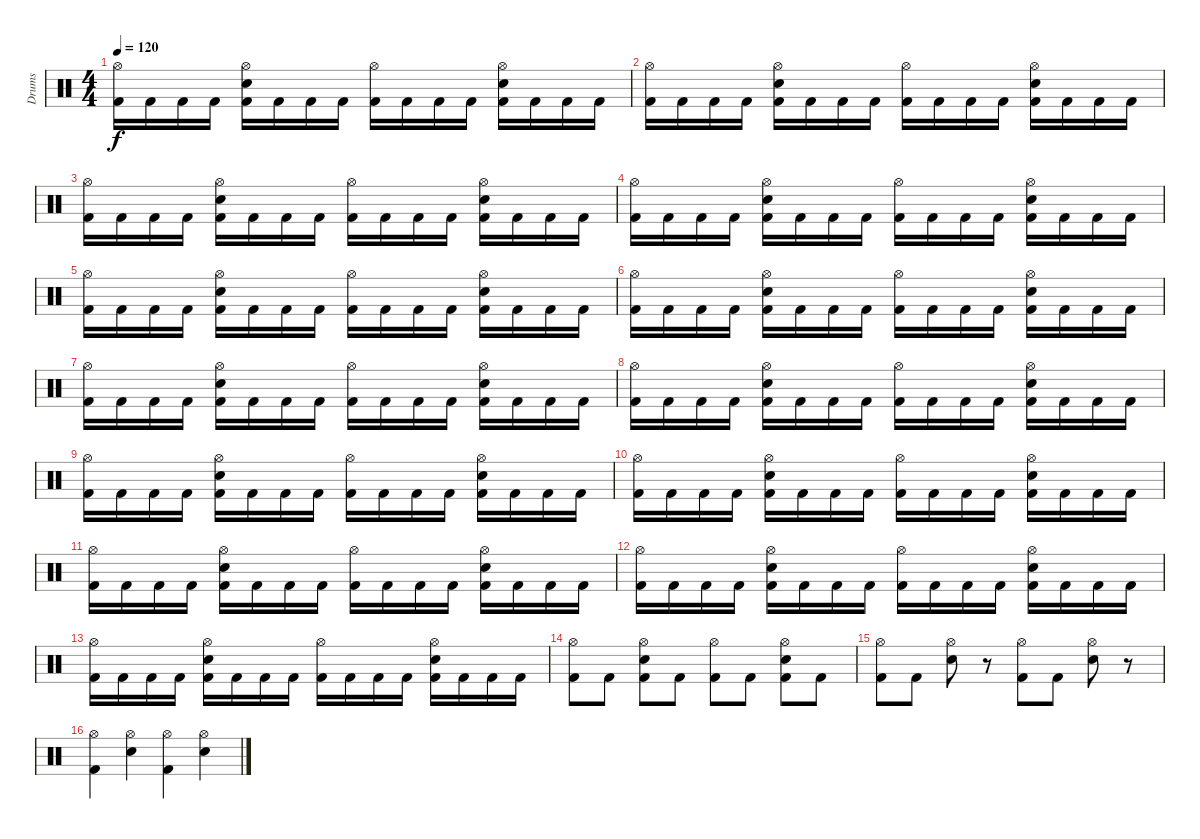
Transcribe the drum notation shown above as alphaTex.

\track ("Drums" "Drums") {instrument percussion}
\staff {score}
\articulation defaults
\ts (4 4)
\tempo 120
\clef neutral
\ks c
("Hi-Hat (open)" "Kick (hit) 2").16{dy f} "Kick (hit) 2".16 "Kick (hit) 2".16 "Kick (hit) 2".16 ("Hi-Hat (open)" "Snare (hit) 2" "Kick (hit) 2").16 "Kick (hit) 2".16 "Kick (hit) 2".16 "Kick (hit) 2".16 ("Hi-Hat (open)" "Kick (hit) 2").16 "Kick (hit) 2".16 "Kick (hit) 2".16 "Kick (hit) 2".16 ("Hi-Hat (open)" "Snare (hit) 2" "Kick (hit) 2").16 "Kick (hit) 2".16 "Kick (hit) 2".16 "Kick (hit) 2".16 |
("Hi-Hat (open)" "Kick (hit) 2").16 "Kick (hit) 2".16 "Kick (hit) 2".16 "Kick (hit) 2".16 ("Hi-Hat (open)" "Snare (hit) 2" "Kick (hit) 2").16 "Kick (hit) 2".16 "Kick (hit) 2".16 "Kick (hit) 2".16 ("Hi-Hat (open)" "Kick (hit) 2").16 "Kick (hit) 2".16 "Kick (hit) 2".16 "Kick (hit) 2".16 ("Hi-Hat (open)" "Snare (hit) 2" "Kick (hit) 2").16 "Kick (hit) 2".16 "Kick (hit) 2".16 "Kick (hit) 2".16 |
("Hi-Hat (open)" "Kick (hit) 2").16 "Kick (hit) 2".16 "Kick (hit) 2".16 "Kick (hit) 2".16 ("Hi-Hat (open)" "Snare (hit) 2" "Kick (hit) 2").16 "Kick (hit) 2".16 "Kick (hit) 2".16 "Kick (hit) 2".16 ("Hi-Hat (open)" "Kick (hit) 2").16 "Kick (hit) 2".16 "Kick (hit) 2".16 "Kick (hit) 2".16 ("Hi-Hat (open)" "Snare (hit) 2" "Kick (hit) 2").16 "Kick (hit) 2".16 "Kick (hit) 2".16 "Kick (hit) 2".16 |
("Hi-Hat (open)" "Kick (hit) 2").16 "Kick (hit) 2".16 "Kick (hit) 2".16 "Kick (hit) 2".16 ("Hi-Hat (open)" "Snare (hit) 2" "Kick (hit) 2").16 "Kick (hit) 2".16 "Kick (hit) 2".16 "Kick (hit) 2".16 ("Hi-Hat (open)" "Kick (hit) 2").16 "Kick (hit) 2".16 "Kick (hit) 2".16 "Kick (hit) 2".16 ("Hi-Hat (open)" "Snare (hit) 2" "Kick (hit) 2").16 "Kick (hit) 2".16 "Kick (hit) 2".16 "Kick (hit) 2".16 |
("Hi-Hat (open)" "Kick (hit) 2").16 "Kick (hit) 2".16 "Kick (hit) 2".16 "Kick (hit) 2".16 ("Hi-Hat (open)" "Snare (hit) 2" "Kick (hit) 2").16 "Kick (hit) 2".16 "Kick (hit) 2".16 "Kick (hit) 2".16 ("Hi-Hat (open)" "Kick (hit) 2").16 "Kick (hit) 2".16 "Kick (hit) 2".16 "Kick (hit) 2".16 ("Hi-Hat (open)" "Snare (hit) 2" "Kick (hit) 2").16 "Kick (hit) 2".16 "Kick (hit) 2".16 "Kick (hit) 2".16 |
("Hi-Hat (open)" "Kick (hit) 2").16 "Kick (hit) 2".16 "Kick (hit) 2".16 "Kick (hit) 2".16 ("Hi-Hat (open)" "Snare (hit) 2" "Kick (hit) 2").16 "Kick (hit) 2".16 "Kick (hit) 2".16 "Kick (hit) 2".16 ("Hi-Hat (open)" "Kick (hit) 2").16 "Kick (hit) 2".16 "Kick (hit) 2".16 "Kick (hit) 2".16 ("Hi-Hat (open)" "Snare (hit) 2" "Kick (hit) 2").16 "Kick (hit) 2".16 "Kick (hit) 2".16 "Kick (hit) 2".16 |
("Hi-Hat (open)" "Kick (hit) 2").16 "Kick (hit) 2".16 "Kick (hit) 2".16 "Kick (hit) 2".16 ("Hi-Hat (open)" "Snare (hit) 2" "Kick (hit) 2").16 "Kick (hit) 2".16 "Kick (hit) 2".16 "Kick (hit) 2".16 ("Hi-Hat (open)" "Kick (hit) 2").16 "Kick (hit) 2".16 "Kick (hit) 2".16 "Kick (hit) 2".16 ("Hi-Hat (open)" "Snare (hit) 2" "Kick (hit) 2").16 "Kick (hit) 2".16 "Kick (hit) 2".16 "Kick (hit) 2".16 |
("Hi-Hat (open)" "Kick (hit) 2").16 "Kick (hit) 2".16 "Kick (hit) 2".16 "Kick (hit) 2".16 ("Hi-Hat (open)" "Snare (hit) 2" "Kick (hit) 2").16 "Kick (hit) 2".16 "Kick (hit) 2".16 "Kick (hit) 2".16 ("Hi-Hat (open)" "Kick (hit) 2").16 "Kick (hit) 2".16 "Kick (hit) 2".16 "Kick (hit) 2".16 ("Hi-Hat (open)" "Snare (hit) 2" "Kick (hit) 2").16 "Kick (hit) 2".16 "Kick (hit) 2".16 "Kick (hit) 2".16 |
("Hi-Hat (open)" "Kick (hit) 2").16 "Kick (hit) 2".16 "Kick (hit) 2".16 "Kick (hit) 2".16 ("Hi-Hat (open)" "Snare (hit) 2" "Kick (hit) 2").16 "Kick (hit) 2".16 "Kick (hit) 2".16 "Kick (hit) 2".16 ("Hi-Hat (open)" "Kick (hit) 2").16 "Kick (hit) 2".16 "Kick (hit) 2".16 "Kick (hit) 2".16 ("Hi-Hat (open)" "Snare (hit) 2" "Kick (hit) 2").16 "Kick (hit) 2".16 "Kick (hit) 2".16 "Kick (hit) 2".16 |
("Hi-Hat (open)" "Kick (hit) 2").16 "Kick (hit) 2".16 "Kick (hit) 2".16 "Kick (hit) 2".16 ("Hi-Hat (open)" "Snare (hit) 2" "Kick (hit) 2").16 "Kick (hit) 2".16 "Kick (hit) 2".16 "Kick (hit) 2".16 ("Hi-Hat (open)" "Kick (hit) 2").16 "Kick (hit) 2".16 "Kick (hit) 2".16 "Kick (hit) 2".16 ("Hi-Hat (open)" "Snare (hit) 2" "Kick (hit) 2").16 "Kick (hit) 2".16 "Kick (hit) 2".16 "Kick (hit) 2".16 |
("Hi-Hat (open)" "Kick (hit) 2").16 "Kick (hit) 2".16 "Kick (hit) 2".16 "Kick (hit) 2".16 ("Hi-Hat (open)" "Snare (hit) 2" "Kick (hit) 2").16 "Kick (hit) 2".16 "Kick (hit) 2".16 "Kick (hit) 2".16 ("Hi-Hat (open)" "Kick (hit) 2").16 "Kick (hit) 2".16 "Kick (hit) 2".16 "Kick (hit) 2".16 ("Hi-Hat (open)" "Snare (hit) 2" "Kick (hit) 2").16 "Kick (hit) 2".16 "Kick (hit) 2".16 "Kick (hit) 2".16 |
("Hi-Hat (open)" "Kick (hit) 2").16 "Kick (hit) 2".16 "Kick (hit) 2".16 "Kick (hit) 2".16 ("Hi-Hat (open)" "Snare (hit) 2" "Kick (hit) 2").16 "Kick (hit) 2".16 "Kick (hit) 2".16 "Kick (hit) 2".16 ("Hi-Hat (open)" "Kick (hit) 2").16 "Kick (hit) 2".16 "Kick (hit) 2".16 "Kick (hit) 2".16 ("Hi-Hat (open)" "Snare (hit) 2" "Kick (hit) 2").16 "Kick (hit) 2".16 "Kick (hit) 2".16 "Kick (hit) 2".16 |
("Hi-Hat (open)" "Kick (hit) 2").16 "Kick (hit) 2".16 "Kick (hit) 2".16 "Kick (hit) 2".16 ("Hi-Hat (open)" "Snare (hit) 2" "Kick (hit) 2").16 "Kick (hit) 2".16 "Kick (hit) 2".16 "Kick (hit) 2".16 ("Hi-Hat (open)" "Kick (hit) 2").16 "Kick (hit) 2".16 "Kick (hit) 2".16 "Kick (hit) 2".16 ("Hi-Hat (open)" "Snare (hit) 2" "Kick (hit) 2").16 "Kick (hit) 2".16 "Kick (hit) 2".16 "Kick (hit) 2".16 |
("Hi-Hat (open)" "Kick (hit) 2").8 "Kick (hit) 2".8 ("Hi-Hat (open)" "Snare (hit) 2" "Kick (hit) 2").8 "Kick (hit) 2".8 ("Hi-Hat (open)" "Kick (hit) 2").8 "Kick (hit) 2".8 ("Hi-Hat (open)" "Snare (hit) 2" "Kick (hit) 2").8 "Kick (hit) 2".8 |
("Hi-Hat (open)" "Kick (hit) 2").8 "Kick (hit) 2".8 ("Hi-Hat (open)" "Snare (hit) 2").8 r.8 ("Hi-Hat (open)" "Kick (hit) 2").8 "Kick (hit) 2".8 ("Hi-Hat (open)" "Snare (hit) 2").8 r.8 |
("Hi-Hat (open)" "Kick (hit) 2").4 ("Hi-Hat (open)" "Snare (hit) 2").4 ("Hi-Hat (open)" "Kick (hit) 2").4 ("Hi-Hat (open)" "Snare (hit) 2").4
